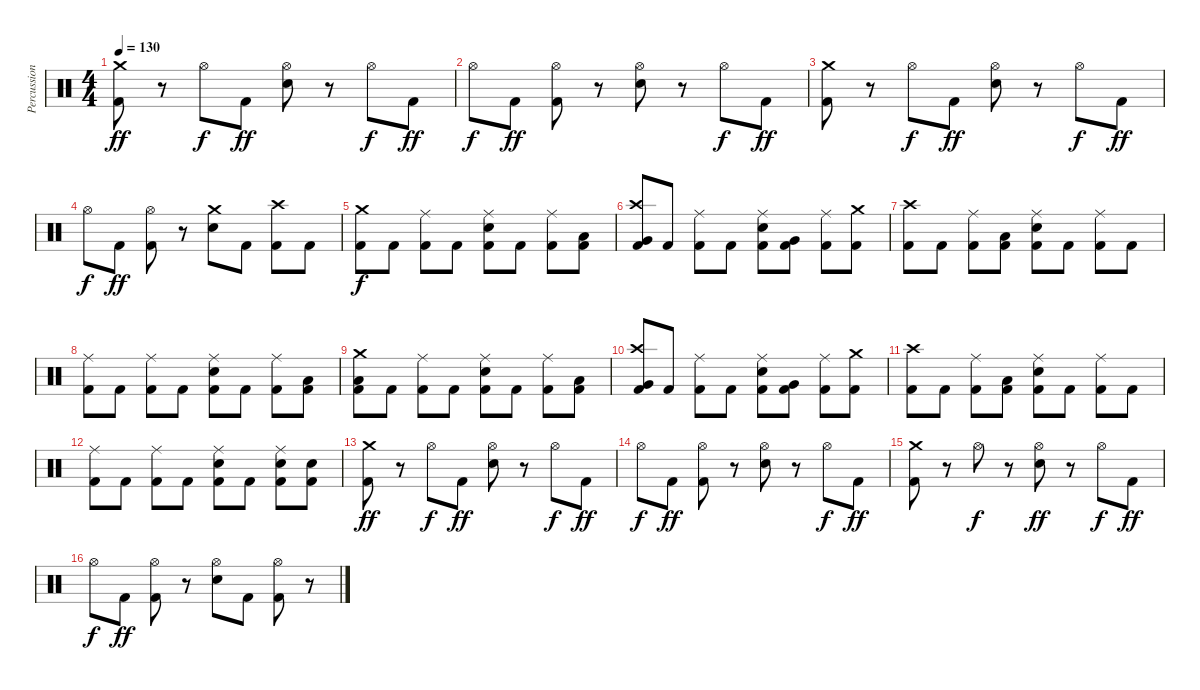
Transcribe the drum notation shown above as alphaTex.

\track ("Percussion" "Percussion") {instrument percussion}
\staff {score}
\articulation defaults
\ts (4 4)
\tempo 130
\clef neutral
\ks c
("Crash medium (hit)" "Kick (hit) 2").8{dy ff} r.8 "Hi-Hat (open)".8{dy f} "Kick (hit) 2".8{dy ff} ("Hi-Hat (open)" "Electric Snare (hit)").8 r.8 "Hi-Hat (open)".8{dy f} "Kick (hit) 2".8{dy ff} |
"Hi-Hat (open)".8{dy f} "Kick (hit) 2".8{dy ff} ("Hi-Hat (open)" "Kick (hit) 2").8 r.8 ("Hi-Hat (open)" "Electric Snare (hit)").8 r.8 "Hi-Hat (open)".8{dy f} "Kick (hit) 2".8{dy ff} |
("Crash medium (hit)" "Kick (hit) 2").8 r.8 "Hi-Hat (open)".8{dy f} "Kick (hit) 2".8{dy ff} ("Hi-Hat (open)" "Electric Snare (hit)").8 r.8 "Hi-Hat (open)".8{dy f} "Kick (hit) 2".8{dy ff} |
"Hi-Hat (open)".8{dy f} "Kick (hit) 2".8{dy ff} ("Hi-Hat (open)" "Kick (hit) 2").8 r.8 ("Crash medium (hit)" "Electric Snare (hit)").8 "Kick (hit) 2".8 ("Crash high (hit)" "Kick (hit) 2").8 "Kick (hit) 2".8 |
("Crash medium (hit)" "Kick (hit) 2").8{dy f} "Kick (hit) 2".8 ("Ride (middle)" "Kick (hit) 2").8 "Kick (hit) 2".8 ("Ride (middle)" "Electric Snare (hit)" "Kick (hit) 2").8 "Kick (hit) 2".8 ("Ride (middle)" "Kick (hit) 2").8 ("Low Tom (hit)" "Kick (hit) 2").8 |
("Crash high (hit)" "Very Low Tom (hit)" "Kick (hit) 2").8 "Kick (hit) 2".8 ("Ride (middle)" "Kick (hit) 2").8 "Kick (hit) 2".8 ("Ride (middle)" "Electric Snare (hit)" "Kick (hit) 2").8 ("Very Low Tom (hit)" "Kick (hit) 2").8 ("Ride (middle)" "Kick (hit) 2").8 ("Crash medium (hit)" "Kick (hit) 2").8 |
("Crash high (hit)" "Kick (hit) 2").8 "Kick (hit) 2".8 ("Ride (middle)" "Kick (hit) 2").8 ("Low Floor Tom (hit)" "Kick (hit) 2").8 ("Ride (middle)" "Electric Snare (hit)" "Kick (hit) 2").8 "Kick (hit) 2".8 ("Ride (middle)" "Kick (hit) 2").8 "Kick (hit) 2".8 |
("Ride (middle)" "Kick (hit) 2").8 "Kick (hit) 2".8 ("Ride (middle)" "Kick (hit) 2").8 "Kick (hit) 2".8 ("Ride (middle)" "Electric Snare (hit)" "Kick (hit) 2").8 "Kick (hit) 2".8 ("Ride (middle)" "Kick (hit) 2").8 ("Low Tom (hit)" "Kick (hit) 2").8 |
("Crash medium (hit)" "Low Tom (hit)" "Kick (hit) 2").8 "Kick (hit) 2".8 ("Ride (middle)" "Kick (hit) 2").8 "Kick (hit) 2".8 ("Ride (middle)" "Electric Snare (hit)" "Kick (hit) 2").8 "Kick (hit) 2".8 ("Ride (middle)" "Kick (hit) 2").8 ("Low Tom (hit)" "Kick (hit) 2").8 |
("Crash high (hit)" "Very Low Tom (hit)" "Kick (hit) 2").8 "Kick (hit) 2".8 ("Ride (middle)" "Kick (hit) 2").8 "Kick (hit) 2".8 ("Ride (middle)" "Electric Snare (hit)" "Kick (hit) 2").8 ("Very Low Tom (hit)" "Kick (hit) 2").8 ("Ride (middle)" "Kick (hit) 2").8 ("Crash medium (hit)" "Kick (hit) 2").8 |
("Crash high (hit)" "Kick (hit) 2").8 "Kick (hit) 2".8 ("Ride (middle)" "Kick (hit) 2").8 ("Low Floor Tom (hit)" "Kick (hit) 2").8 ("Ride (middle)" "Electric Snare (hit)" "Kick (hit) 2").8 "Kick (hit) 2".8 ("Ride (middle)" "Kick (hit) 2").8 "Kick (hit) 2".8 |
("Ride (middle)" "Kick (hit) 2").8 "Kick (hit) 2".8 ("Ride (middle)" "Kick (hit) 2").8 "Kick (hit) 2".8 ("Ride (middle)" "Electric Snare (hit)" "Kick (hit) 2").8 "Kick (hit) 2".8 ("Ride (middle)" "Electric Snare (hit)" "Kick (hit) 2").8 ("Electric Snare (hit)" "Kick (hit) 2").8 |
("Crash medium (hit)" "Kick (hit) 2").8{dy ff} r.8 "Hi-Hat (open)".8{dy f} "Kick (hit) 2".8{dy ff} ("Hi-Hat (open)" "Electric Snare (hit)").8 r.8 "Hi-Hat (open)".8{dy f} "Kick (hit) 2".8{dy ff} |
"Hi-Hat (open)".8{dy f} "Kick (hit) 2".8{dy ff} ("Hi-Hat (open)" "Kick (hit) 2").8 r.8 ("Hi-Hat (open)" "Electric Snare (hit)").8 r.8 "Hi-Hat (open)".8{dy f} "Kick (hit) 2".8{dy ff} |
("Crash medium (hit)" "Kick (hit) 2").8 r.8 "Hi-Hat (open)".8{dy f} r.8 ("Hi-Hat (open)" "Electric Snare (hit)").8{dy ff} r.8 "Hi-Hat (open)".8{dy f} "Kick (hit) 2".8{dy ff} |
"Hi-Hat (open)".8{dy f} "Kick (hit) 2".8{dy ff} ("Hi-Hat (open)" "Kick (hit) 2").8 r.8 ("Hi-Hat (open)" "Electric Snare (hit)").8 "Kick (hit) 2".8 ("Hi-Hat (open)" "Kick (hit) 2").8 r.8
